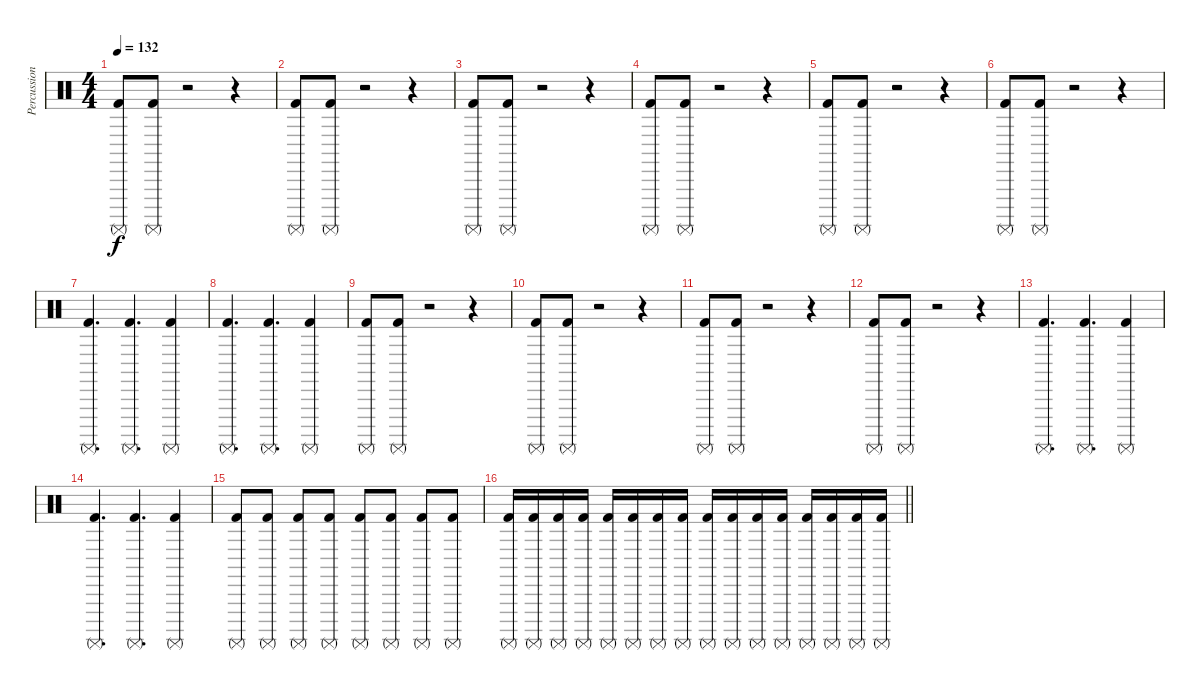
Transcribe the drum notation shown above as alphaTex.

\track ("Percussion" "Percussion") {instrument percussion}
\staff {score}
\articulation defaults
\ts (4 4)
\section ("" "")
\tempo 132
\clef neutral
\ks c
("Surdo (mute)" "Kick (hit) 2").8{dy f} ("Surdo (mute)" "Kick (hit) 2").8 r.2 r.4 |
("Surdo (mute)" "Kick (hit) 2").8 ("Surdo (mute)" "Kick (hit) 2").8 r.2 r.4 |
("Surdo (mute)" "Kick (hit) 2").8 ("Surdo (mute)" "Kick (hit) 2").8 r.2 r.4 |
("Surdo (mute)" "Kick (hit) 2").8 ("Surdo (mute)" "Kick (hit) 2").8 r.2 r.4 |
("Surdo (mute)" "Kick (hit) 2").8 ("Surdo (mute)" "Kick (hit) 2").8 r.2 r.4 |
("Surdo (mute)" "Kick (hit) 2").8 ("Surdo (mute)" "Kick (hit) 2").8 r.2 r.4 |
("Surdo (mute)" "Kick (hit) 2").4{d} ("Surdo (mute)" "Kick (hit) 2").4{d} ("Surdo (mute)" "Kick (hit) 2").4 |
("Surdo (mute)" "Kick (hit) 2").4{d} ("Surdo (mute)" "Kick (hit) 2").4{d} ("Surdo (mute)" "Kick (hit) 2").4 |
("Surdo (mute)" "Kick (hit) 2").8 ("Surdo (mute)" "Kick (hit) 2").8 r.2 r.4 |
("Surdo (mute)" "Kick (hit) 2").8 ("Surdo (mute)" "Kick (hit) 2").8 r.2 r.4 |
("Surdo (mute)" "Kick (hit) 2").8 ("Surdo (mute)" "Kick (hit) 2").8 r.2 r.4 |
("Surdo (mute)" "Kick (hit) 2").8 ("Surdo (mute)" "Kick (hit) 2").8 r.2 r.4 |
("Surdo (mute)" "Kick (hit) 2").4{d} ("Surdo (mute)" "Kick (hit) 2").4{d} ("Surdo (mute)" "Kick (hit) 2").4 |
("Surdo (mute)" "Kick (hit) 2").4{d} ("Surdo (mute)" "Kick (hit) 2").4{d} ("Surdo (mute)" "Kick (hit) 2").4 |
("Surdo (mute)" "Kick (hit) 2").8 ("Surdo (mute)" "Kick (hit) 2").8 ("Surdo (mute)" "Kick (hit) 2").8 ("Surdo (mute)" "Kick (hit) 2").8 ("Surdo (mute)" "Kick (hit) 2").8 ("Surdo (mute)" "Kick (hit) 2").8 ("Surdo (mute)" "Kick (hit) 2").8 ("Surdo (mute)" "Kick (hit) 2").8 |
\barLineRight lightlight
("Surdo (mute)" "Kick (hit) 2").16 ("Surdo (mute)" "Kick (hit) 2").16 ("Surdo (mute)" "Kick (hit) 2").16 ("Surdo (mute)" "Kick (hit) 2").16 ("Surdo (mute)" "Kick (hit) 2").16 ("Surdo (mute)" "Kick (hit) 2").16 ("Surdo (mute)" "Kick (hit) 2").16 ("Surdo (mute)" "Kick (hit) 2").16 ("Surdo (mute)" "Kick (hit) 2").16 ("Surdo (mute)" "Kick (hit) 2").16 ("Surdo (mute)" "Kick (hit) 2").16 ("Surdo (mute)" "Kick (hit) 2").16 ("Surdo (mute)" "Kick (hit) 2").16 ("Surdo (mute)" "Kick (hit) 2").16 ("Surdo (mute)" "Kick (hit) 2").16 ("Surdo (mute)" "Kick (hit) 2").16
